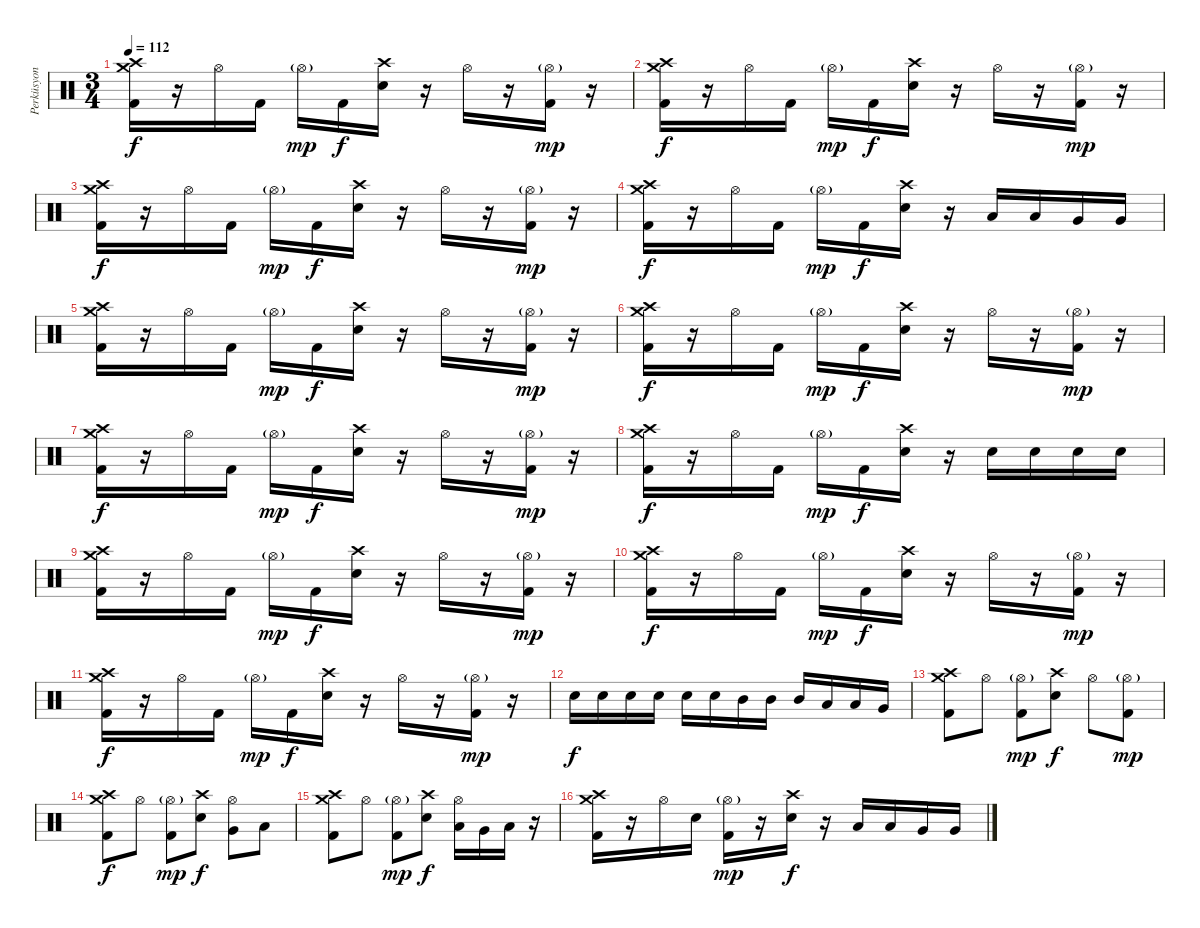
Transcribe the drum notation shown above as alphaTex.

\track ("Perküsyon" "Perküsyon") {instrument percussion}
\staff {score}
\articulation defaults
\ts (3 4)
\tempo 112
\clef neutral
\ks c
("Crash high (hit)" "Crash medium (hit)" "Kick (hit) 2").16{dy f} r.16 "Hi-Hat (open)".16 "Kick (hit) 2".16 "Hi-Hat (open)"{g}.16{dy mp} "Kick (hit) 2".16{dy f} ("Crash high (hit)" "Electric Snare (hit)").16 r.16 "Hi-Hat (open)".16 r.16 ("Hi-Hat (open)"{g} "Kick (hit) 2").16{dy mp} r.16 |
("Crash high (hit)" "Crash medium (hit)" "Kick (hit) 2").16{dy f} r.16 "Hi-Hat (open)".16 "Kick (hit) 2".16 "Hi-Hat (open)"{g}.16{dy mp} "Kick (hit) 2".16{dy f} ("Crash high (hit)" "Electric Snare (hit)").16 r.16 "Hi-Hat (open)".16 r.16 ("Hi-Hat (open)"{g} "Kick (hit) 2").16{dy mp} r.16 |
("Crash high (hit)" "Crash medium (hit)" "Kick (hit) 2").16{dy f} r.16 "Hi-Hat (open)".16 "Kick (hit) 2".16 "Hi-Hat (open)"{g}.16{dy mp} "Kick (hit) 2".16{dy f} ("Crash high (hit)" "Electric Snare (hit)").16 r.16 "Hi-Hat (open)".16 r.16 ("Hi-Hat (open)"{g} "Kick (hit) 2").16{dy mp} r.16 |
("Crash high (hit)" "Crash medium (hit)" "Kick (hit) 2").16{dy f} r.16 "Hi-Hat (open)".16 "Kick (hit) 2".16 "Hi-Hat (open)"{g}.16{dy mp} "Kick (hit) 2".16{dy f} ("Crash high (hit)" "Electric Snare (hit)").16 r.16 "Low Tom (hit)".16 "Low Tom (hit)".16 "Very Low Tom (hit)".16 "Very Low Tom (hit)".16 |
("Crash high (hit)" "Crash medium (hit)" "Kick (hit) 2").16 r.16 "Hi-Hat (open)".16 "Kick (hit) 2".16 "Hi-Hat (open)"{g}.16{dy mp} "Kick (hit) 2".16{dy f} ("Crash high (hit)" "Electric Snare (hit)").16 r.16 "Hi-Hat (open)".16 r.16 ("Hi-Hat (open)"{g} "Kick (hit) 2").16{dy mp} r.16 |
("Crash high (hit)" "Crash medium (hit)" "Kick (hit) 2").16{dy f} r.16 "Hi-Hat (open)".16 "Kick (hit) 2".16 "Hi-Hat (open)"{g}.16{dy mp} "Kick (hit) 2".16{dy f} ("Crash high (hit)" "Electric Snare (hit)").16 r.16 "Hi-Hat (open)".16 r.16 ("Hi-Hat (open)"{g} "Kick (hit) 2").16{dy mp} r.16 |
("Crash high (hit)" "Crash medium (hit)" "Kick (hit) 2").16{dy f} r.16 "Hi-Hat (open)".16 "Kick (hit) 2".16 "Hi-Hat (open)"{g}.16{dy mp} "Kick (hit) 2".16{dy f} ("Crash high (hit)" "Electric Snare (hit)").16 r.16 "Hi-Hat (open)".16 r.16 ("Hi-Hat (open)"{g} "Kick (hit) 2").16{dy mp} r.16 |
("Crash high (hit)" "Crash medium (hit)" "Kick (hit) 2").16{dy f} r.16 "Hi-Hat (open)".16 "Kick (hit) 2".16 "Hi-Hat (open)"{g}.16{dy mp} "Kick (hit) 2".16{dy f} ("Crash high (hit)" "Electric Snare (hit)").16 r.16 "Electric Snare (hit)".16 "Electric Snare (hit)".16 "Electric Snare (hit)".16 "Electric Snare (hit)".16 |
("Crash high (hit)" "Crash medium (hit)" "Kick (hit) 2").16 r.16 "Hi-Hat (open)".16 "Kick (hit) 2".16 "Hi-Hat (open)"{g}.16{dy mp} "Kick (hit) 2".16{dy f} ("Crash high (hit)" "Electric Snare (hit)").16 r.16 "Hi-Hat (open)".16 r.16 ("Hi-Hat (open)"{g} "Kick (hit) 2").16{dy mp} r.16 |
("Crash high (hit)" "Crash medium (hit)" "Kick (hit) 2").16{dy f} r.16 "Hi-Hat (open)".16 "Kick (hit) 2".16 "Hi-Hat (open)"{g}.16{dy mp} "Kick (hit) 2".16{dy f} ("Crash high (hit)" "Electric Snare (hit)").16 r.16 "Hi-Hat (open)".16 r.16 ("Hi-Hat (open)"{g} "Kick (hit) 2").16{dy mp} r.16 |
("Crash high (hit)" "Crash medium (hit)" "Kick (hit) 2").16{dy f} r.16 "Hi-Hat (open)".16 "Kick (hit) 2".16 "Hi-Hat (open)"{g}.16{dy mp} "Kick (hit) 2".16{dy f} ("Crash high (hit)" "Electric Snare (hit)").16 r.16 "Hi-Hat (open)".16 r.16 ("Hi-Hat (open)"{g} "Kick (hit) 2").16{dy mp} r.16 |
"Electric Snare (hit)".16{dy f} "Electric Snare (hit)".16 "Electric Snare (hit)".16 "Electric Snare (hit)".16 "Electric Snare (hit)".16 "Electric Snare (hit)".16 "Mid Tom (hit)".16 "Mid Tom (hit)".16 "Mid Tom (hit)".16 "Low Tom (hit)".16 "Low Tom (hit)".16 "Very Low Tom (hit)".16 |
("Crash high (hit)" "Crash medium (hit)" "Kick (hit) 2").8 "Hi-Hat (open)".8 ("Hi-Hat (open)"{g} "Kick (hit) 2").8{dy mp} ("Crash high (hit)" "Electric Snare (hit)").8{dy f} "Hi-Hat (open)".8 ("Hi-Hat (open)"{g} "Kick (hit) 2").8{dy mp} |
("Crash high (hit)" "Crash medium (hit)" "Kick (hit) 2").8{dy f} "Hi-Hat (open)".8 ("Hi-Hat (open)"{g} "Kick (hit) 2").8{dy mp} ("Crash high (hit)" "Electric Snare (hit)").8{dy f} ("Hi-Hat (open)" "Very Low Tom (hit)").8 "Low Floor Tom (hit)".8 |
("Crash high (hit)" "Crash medium (hit)" "Kick (hit) 2").8 "Hi-Hat (open)".8 ("Hi-Hat (open)"{g} "Kick (hit) 2").8{dy mp} ("Crash high (hit)" "Electric Snare (hit)").8{dy f} ("Hi-Hat (open)" "Low Tom (hit)").16 "Very Low Tom (hit)".16 "Low Floor Tom (hit)".16 r.16 |
("Crash high (hit)" "Crash medium (hit)" "Kick (hit) 2").16 r.16 "Hi-Hat (open)".16 "Electric Snare (hit)".16 ("Hi-Hat (open)"{g} "Kick (hit) 2").16{dy mp} r.16 ("Crash high (hit)" "Electric Snare (hit)").16{dy f} r.16 "Low Tom (hit)".16 "Low Tom (hit)".16 "Very Low Tom (hit)".16 "Very Low Tom (hit)".16
